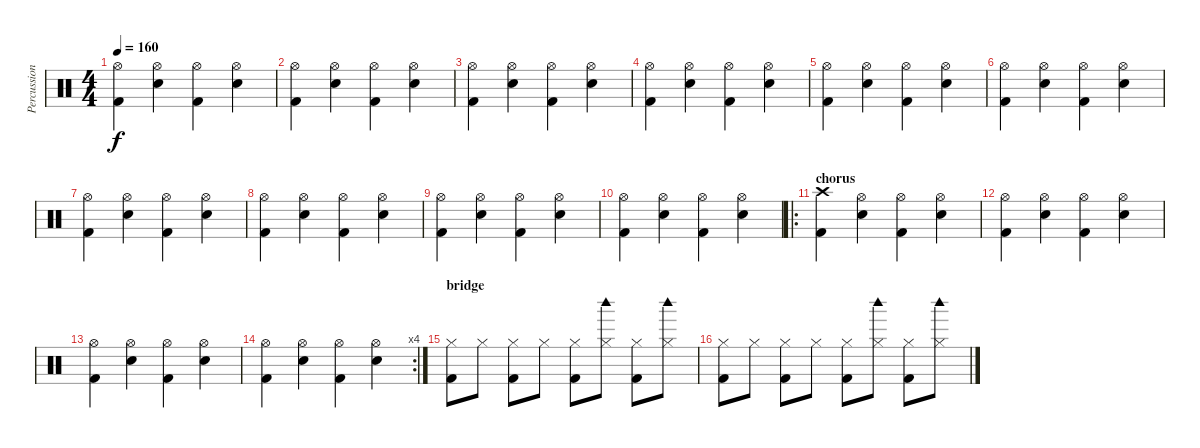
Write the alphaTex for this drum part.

\track ("Percussion" "Percussion") {instrument percussion}
\staff {score}
\articulation defaults
\ts (4 4)
\tempo 160
\clef neutral
\ks c
("Hi-Hat (open)" "Kick (hit) 2").4{dy f} ("Hi-Hat (open)" "Snare (hit) 2").4 ("Hi-Hat (open)" "Kick (hit) 2").4 ("Hi-Hat (open)" "Snare (hit) 2").4 |
("Hi-Hat (open)" "Kick (hit) 2").4 ("Hi-Hat (open)" "Snare (hit) 2").4 ("Hi-Hat (open)" "Kick (hit) 2").4 ("Hi-Hat (open)" "Snare (hit) 2").4 |
("Hi-Hat (open)" "Kick (hit) 2").4 ("Hi-Hat (open)" "Snare (hit) 2").4 ("Hi-Hat (open)" "Kick (hit) 2").4 ("Hi-Hat (open)" "Snare (hit) 2").4 |
("Hi-Hat (open)" "Kick (hit) 2").4 ("Hi-Hat (open)" "Snare (hit) 2").4 ("Hi-Hat (open)" "Kick (hit) 2").4 ("Hi-Hat (open)" "Snare (hit) 2").4 |
("Hi-Hat (open)" "Kick (hit) 2").4 ("Hi-Hat (open)" "Snare (hit) 2").4 ("Hi-Hat (open)" "Kick (hit) 2").4 ("Hi-Hat (open)" "Snare (hit) 2").4 |
("Hi-Hat (open)" "Kick (hit) 2").4 ("Hi-Hat (open)" "Snare (hit) 2").4 ("Hi-Hat (open)" "Kick (hit) 2").4 ("Hi-Hat (open)" "Snare (hit) 2").4 |
("Hi-Hat (open)" "Kick (hit) 2").4 ("Hi-Hat (open)" "Snare (hit) 2").4 ("Hi-Hat (open)" "Kick (hit) 2").4 ("Hi-Hat (open)" "Snare (hit) 2").4 |
("Hi-Hat (open)" "Kick (hit) 2").4 ("Hi-Hat (open)" "Snare (hit) 2").4 ("Hi-Hat (open)" "Kick (hit) 2").4 ("Hi-Hat (open)" "Snare (hit) 2").4 |
("Hi-Hat (open)" "Kick (hit) 2").4 ("Hi-Hat (open)" "Snare (hit) 2").4 ("Hi-Hat (open)" "Kick (hit) 2").4 ("Hi-Hat (open)" "Snare (hit) 2").4 |
("Hi-Hat (open)" "Kick (hit) 2").4 ("Hi-Hat (open)" "Snare (hit) 2").4 ("Hi-Hat (open)" "Kick (hit) 2").4 ("Hi-Hat (open)" "Snare (hit) 2").4 |
\ro
\section ("" "chorus")
("Crash high (hit)" "Kick (hit) 2").4 ("Hi-Hat (open)" "Snare (hit) 2").4 ("Hi-Hat (open)" "Kick (hit) 2").4 ("Hi-Hat (open)" "Snare (hit) 2").4 |
("Hi-Hat (open)" "Kick (hit) 2").4 ("Hi-Hat (open)" "Snare (hit) 2").4 ("Hi-Hat (open)" "Kick (hit) 2").4 ("Hi-Hat (open)" "Snare (hit) 2").4 |
("Hi-Hat (open)" "Kick (hit) 2").4 ("Hi-Hat (open)" "Snare (hit) 2").4 ("Hi-Hat (open)" "Kick (hit) 2").4 ("Hi-Hat (open)" "Snare (hit) 2").4 |
\rc 4
("Hi-Hat (open)" "Kick (hit) 2").4 ("Hi-Hat (open)" "Snare (hit) 2").4 ("Hi-Hat (open)" "Kick (hit) 2").4 ("Hi-Hat (open)" "Snare (hit) 2").4 |
\section ("" "bridge")
("Hi-Hat (closed)" "Kick (hit) 2").8 "Hi-Hat (closed)".8 ("Hi-Hat (closed)" "Kick (hit) 2").8 "Hi-Hat (closed)".8 ("Hi-Hat (closed)" "Kick (hit) 2").8 ("Hi-Hat (closed)" "Woodblock high (hit)").8 ("Hi-Hat (closed)" "Kick (hit) 2").8 ("Hi-Hat (closed)" "Woodblock high (hit)").8 |
("Hi-Hat (closed)" "Kick (hit) 2").8 "Hi-Hat (closed)".8 ("Hi-Hat (closed)" "Kick (hit) 2").8 "Hi-Hat (closed)".8 ("Hi-Hat (closed)" "Kick (hit) 2").8 ("Hi-Hat (closed)" "Woodblock high (hit)").8 ("Hi-Hat (closed)" "Kick (hit) 2").8 ("Hi-Hat (closed)" "Woodblock high (hit)").8
